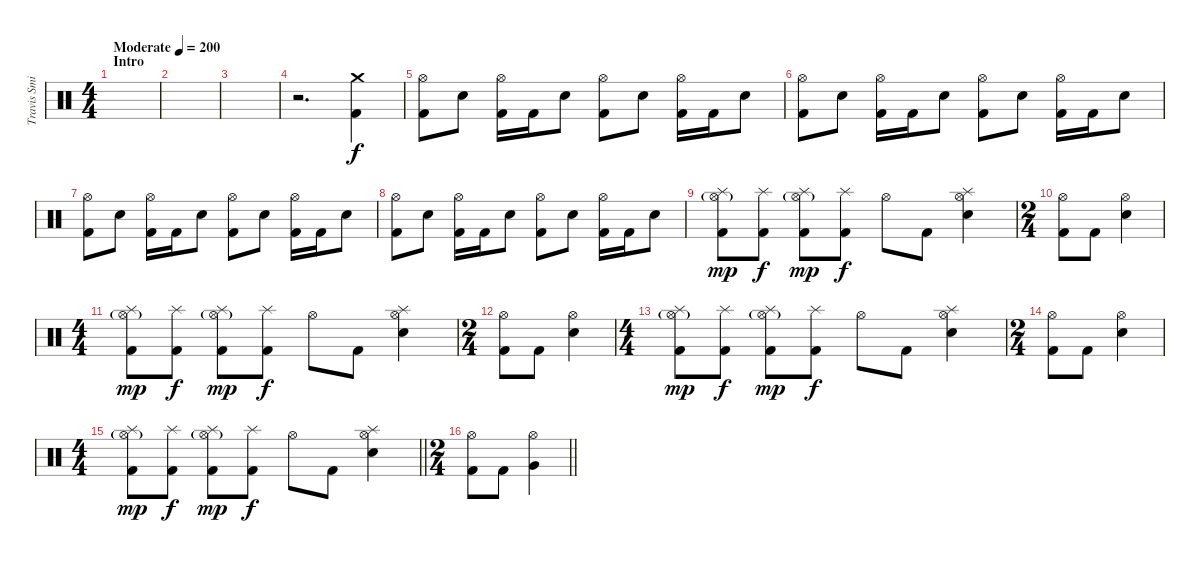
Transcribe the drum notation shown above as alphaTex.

\track ("Travis Smith" "Travis Smi") {instrument percussion}
\staff {score}
\articulation defaults
\ts (4 4)
\section ("" "Intro")
\tempo (200 "Moderate")
\clef neutral
\ks c
|
|
|
r.2{d} ("Crash medium (hit)" "Kick (hit) 2").4 |
("Hi-Hat (open)" "Kick (hit) 2").8 "Electric Snare (hit)".8 ("Hi-Hat (open)" "Kick (hit) 2").16 "Kick (hit) 2".16 "Electric Snare (hit)".8 ("Hi-Hat (open)" "Kick (hit) 2").8 "Electric Snare (hit)".8 ("Hi-Hat (open)" "Kick (hit) 2").16 "Kick (hit) 2".16 "Electric Snare (hit)".8 |
("Hi-Hat (open)" "Kick (hit) 2").8 "Electric Snare (hit)".8 ("Hi-Hat (open)" "Kick (hit) 2").16 "Kick (hit) 2".16 "Electric Snare (hit)".8 ("Hi-Hat (open)" "Kick (hit) 2").8 "Electric Snare (hit)".8 ("Hi-Hat (open)" "Kick (hit) 2").16 "Kick (hit) 2".16 "Electric Snare (hit)".8 |
("Hi-Hat (open)" "Kick (hit) 2").8 "Electric Snare (hit)".8 ("Hi-Hat (open)" "Kick (hit) 2").16 "Kick (hit) 2".16 "Electric Snare (hit)".8 ("Hi-Hat (open)" "Kick (hit) 2").8 "Electric Snare (hit)".8 ("Hi-Hat (open)" "Kick (hit) 2").16 "Kick (hit) 2".16 "Electric Snare (hit)".8 |
("Hi-Hat (open)" "Kick (hit) 2").8 "Electric Snare (hit)".8 ("Hi-Hat (open)" "Kick (hit) 2").16 "Kick (hit) 2".16 "Electric Snare (hit)".8 ("Hi-Hat (open)" "Kick (hit) 2").8 "Electric Snare (hit)".8 ("Hi-Hat (open)" "Kick (hit) 2").16 "Kick (hit) 2".16 "Electric Snare (hit)".8 |
("Splash (hit)" "Hi-Hat (open)"{g} "Kick (hit) 2").8{dy mp} ("Splash (hit)" "Kick (hit) 2").8{dy f} ("Splash (hit)" "Hi-Hat (open)"{g} "Kick (hit) 2").8{dy mp} ("Splash (hit)" "Kick (hit) 2").8{dy f} "Hi-Hat (open)".8 "Kick (hit) 2".8 ("Splash (hit)" "Hi-Hat (open)" "Electric Snare (hit)").4 |
\ts (2 4)
("Hi-Hat (open)" "Kick (hit) 2").8 "Kick (hit) 2".8 ("Hi-Hat (open)" "Electric Snare (hit)").4 |
\ts (4 4)
("Splash (hit)" "Hi-Hat (open)"{g} "Kick (hit) 2").8{dy mp} ("Splash (hit)" "Kick (hit) 2").8{dy f} ("Splash (hit)" "Hi-Hat (open)"{g} "Kick (hit) 2").8{dy mp} ("Splash (hit)" "Kick (hit) 2").8{dy f} "Hi-Hat (open)".8 "Kick (hit) 2".8 ("Splash (hit)" "Hi-Hat (open)" "Electric Snare (hit)").4 |
\ts (2 4)
("Hi-Hat (open)" "Kick (hit) 2").8 "Kick (hit) 2".8 ("Hi-Hat (open)" "Electric Snare (hit)").4 |
\ts (4 4)
("Splash (hit)" "Hi-Hat (open)"{g} "Kick (hit) 2").8{dy mp} ("Splash (hit)" "Kick (hit) 2").8{dy f} ("Splash (hit)" "Hi-Hat (open)"{g} "Kick (hit) 2").8{dy mp} ("Splash (hit)" "Kick (hit) 2").8{dy f} "Hi-Hat (open)".8 "Kick (hit) 2".8 ("Splash (hit)" "Hi-Hat (open)" "Electric Snare (hit)").4 |
\ts (2 4)
("Hi-Hat (open)" "Kick (hit) 2").8 "Kick (hit) 2".8 ("Hi-Hat (open)" "Electric Snare (hit)").4 |
\ts (4 4)
\barLineRight lightlight
("Splash (hit)" "Hi-Hat (open)"{g} "Kick (hit) 2").8{dy mp} ("Splash (hit)" "Kick (hit) 2").8{dy f} ("Splash (hit)" "Hi-Hat (open)"{g} "Kick (hit) 2").8{dy mp} ("Splash (hit)" "Kick (hit) 2").8{dy f} "Hi-Hat (open)".8 "Kick (hit) 2".8 ("Splash (hit)" "Hi-Hat (open)" "Electric Snare (hit)").4 |
\ts (2 4)
\section ("" "")
\barLineRight lightlight
("Hi-Hat (open)" "Kick (hit) 2").8 "Kick (hit) 2".8 ("Hi-Hat (open)" "Very Low Tom (hit)").4
